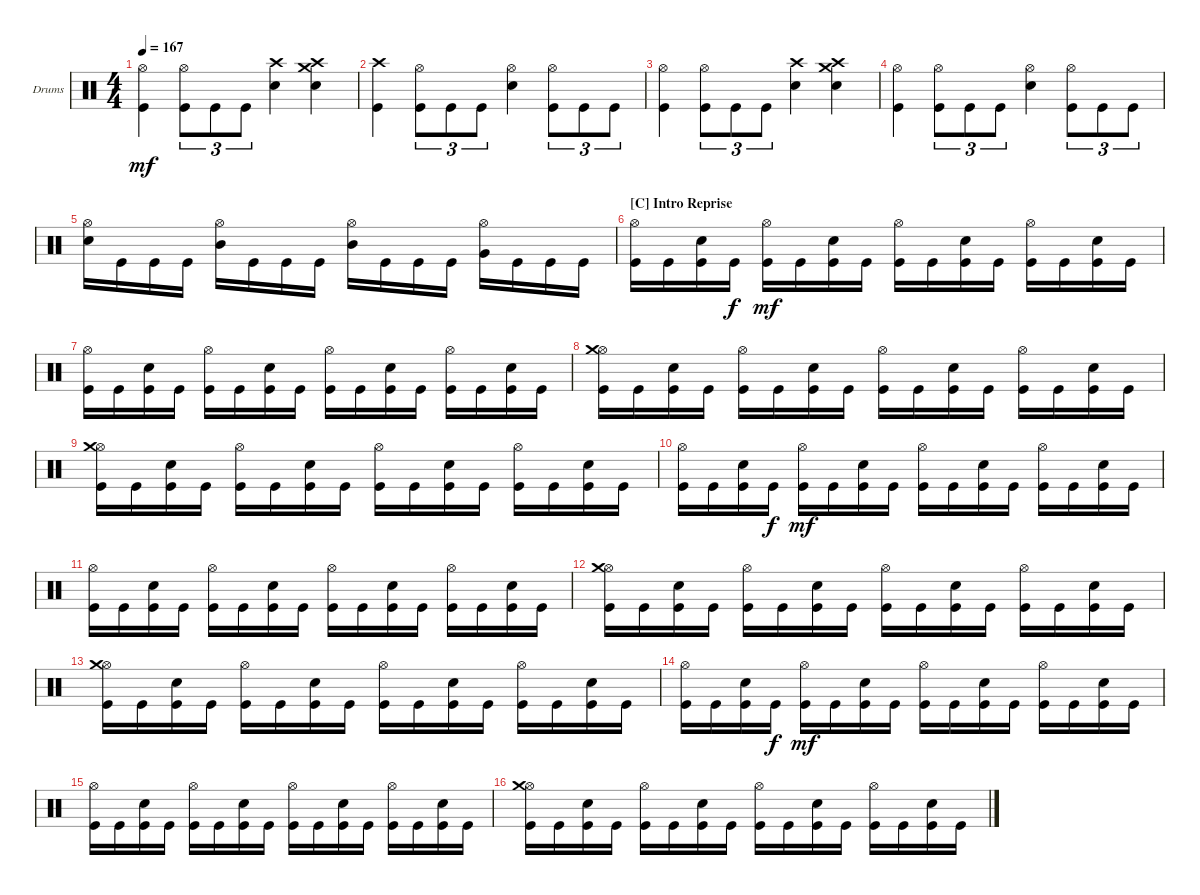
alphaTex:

\defaultSystemsLayout 4
\bracketExtendMode groupsimilarinstruments
\firstSystemTrackNameOrientation horizontal
\otherSystemsTrackNameOrientation horizontal
\track ("Drumkit" "Drums") {instrument percussion}
\staff {score}
\articulation defaults
\ts (4 4)
\tempo 167
\clef neutral
\ks c
("Kick (hit)" "Hi-Hat (open)").4{dy mf} ("Kick (hit)" "Hi-Hat (open)").8{tu (3 2)} "Kick (hit)".8{tu (3 2)} "Kick (hit)".8{tu (3 2)} ("Snare (hit) 2" "Crash high (hit)").4 ("Snare (hit) 2" "Crash medium (hit)" "Crash high (hit)").4 |
("Kick (hit)" "Crash high (hit)").4 ("Kick (hit)" "Hi-Hat (open)").8{tu (3 2)} "Kick (hit)".8{tu (3 2)} "Kick (hit)".8{tu (3 2)} ("Hi-Hat (open)" "Snare (hit) 2").4 ("Kick (hit)" "Hi-Hat (open)").8{tu (3 2)} "Kick (hit)".8{tu (3 2)} "Kick (hit)".8{tu (3 2)} |
("Kick (hit)" "Hi-Hat (open)").4 ("Kick (hit)" "Hi-Hat (open)").8{tu (3 2)} "Kick (hit)".8{tu (3 2)} "Kick (hit)".8{tu (3 2)} ("Snare (hit) 2" "Crash high (hit)").4 ("Snare (hit) 2" "Crash medium (hit)" "Crash high (hit)").4 |
("Kick (hit)" "Hi-Hat (open)").4 ("Kick (hit)" "Hi-Hat (open)").8{tu (3 2)} "Kick (hit)".8{tu (3 2)} "Kick (hit)".8{tu (3 2)} ("Hi-Hat (open)" "Snare (hit) 2").4 ("Kick (hit)" "Hi-Hat (open)").8{tu (3 2)} "Kick (hit)".8{tu (3 2)} "Kick (hit)".8{tu (3 2)} |
("Snare (hit) 2" "Hi-Hat (open)").16 "Kick (hit)".16 "Kick (hit)".16 "Kick (hit)".16 ("Mid Tom (hit)" "Hi-Hat (open)").16 "Kick (hit)".16 "Kick (hit)".16 "Kick (hit)".16 ("Mid Tom (hit)" "Hi-Hat (open)").16 "Kick (hit)".16 "Kick (hit)".16 "Kick (hit)".16 ("Very Low Tom (hit)" "Hi-Hat (open)").16 "Kick (hit)".16 "Kick (hit)".16 "Kick (hit)".16 |
\section ("C" "Intro Reprise")
("Kick (hit)" "Hi-Hat (open)").16 "Kick (hit)".16 ("Snare (hit) 2" "Kick (hit)").16 "Kick (hit)".16{dy f} ("Hi-Hat (open)" "Kick (hit)").16{dy mf} "Kick (hit)".16 ("Kick (hit)" "Snare (hit) 2").16 "Kick (hit)".16 ("Kick (hit)" "Hi-Hat (open)").16 "Kick (hit)".16 ("Kick (hit)" "Snare (hit) 2").16 "Kick (hit)".16 ("Kick (hit)" "Hi-Hat (open)").16 "Kick (hit)".16 ("Kick (hit)" "Snare (hit) 2").16 "Kick (hit)".16 |
("Kick (hit)" "Hi-Hat (open)").16 "Kick (hit)".16 ("Snare (hit) 2" "Kick (hit)").16 "Kick (hit)".16 ("Hi-Hat (open)" "Kick (hit)").16 "Kick (hit)".16 ("Snare (hit) 2" "Kick (hit)").16 "Kick (hit)".16 ("Kick (hit)" "Hi-Hat (open)").16 "Kick (hit)".16 ("Kick (hit)" "Snare (hit) 2").16 "Kick (hit)".16 ("Kick (hit)" "Hi-Hat (open)").16 "Kick (hit)".16 ("Kick (hit)" "Snare (hit) 2").16 "Kick (hit)".16 |
("Kick (hit)" "Hi-Hat (open)" "Crash medium (hit)").16 "Kick (hit)".16 ("Snare (hit) 2" "Kick (hit)").16 "Kick (hit)".16 ("Hi-Hat (open)" "Kick (hit)").16 "Kick (hit)".16 ("Kick (hit)" "Snare (hit) 2").16 "Kick (hit)".16 ("Kick (hit)" "Hi-Hat (open)").16 "Kick (hit)".16 ("Kick (hit)" "Snare (hit) 2").16 "Kick (hit)".16 ("Kick (hit)" "Hi-Hat (open)").16 "Kick (hit)".16 ("Kick (hit)" "Snare (hit) 2").16 "Kick (hit)".16 |
("Kick (hit)" "Hi-Hat (open)" "Crash medium (hit)").16 "Kick (hit)".16 ("Snare (hit) 2" "Kick (hit)").16 "Kick (hit)".16 ("Hi-Hat (open)" "Kick (hit)").16 "Kick (hit)".16 ("Kick (hit)" "Snare (hit) 2").16 "Kick (hit)".16 ("Kick (hit)" "Hi-Hat (open)").16 "Kick (hit)".16 ("Kick (hit)" "Snare (hit) 2").16 "Kick (hit)".16 ("Kick (hit)" "Hi-Hat (open)").16 "Kick (hit)".16 ("Kick (hit)" "Snare (hit) 2").16 "Kick (hit)".16 |
("Kick (hit)" "Hi-Hat (open)").16 "Kick (hit)".16 ("Snare (hit) 2" "Kick (hit)").16 "Kick (hit)".16{dy f} ("Hi-Hat (open)" "Kick (hit)").16{dy mf} "Kick (hit)".16 ("Kick (hit)" "Snare (hit) 2").16 "Kick (hit)".16 ("Kick (hit)" "Hi-Hat (open)").16 "Kick (hit)".16 ("Kick (hit)" "Snare (hit) 2").16 "Kick (hit)".16 ("Kick (hit)" "Hi-Hat (open)").16 "Kick (hit)".16 ("Kick (hit)" "Snare (hit) 2").16 "Kick (hit)".16 |
("Kick (hit)" "Hi-Hat (open)").16 "Kick (hit)".16 ("Snare (hit) 2" "Kick (hit)").16 "Kick (hit)".16 ("Hi-Hat (open)" "Kick (hit)").16 "Kick (hit)".16 ("Snare (hit) 2" "Kick (hit)").16 "Kick (hit)".16 ("Kick (hit)" "Hi-Hat (open)").16 "Kick (hit)".16 ("Kick (hit)" "Snare (hit) 2").16 "Kick (hit)".16 ("Kick (hit)" "Hi-Hat (open)").16 "Kick (hit)".16 ("Kick (hit)" "Snare (hit) 2").16 "Kick (hit)".16 |
("Kick (hit)" "Hi-Hat (open)" "Crash medium (hit)").16 "Kick (hit)".16 ("Snare (hit) 2" "Kick (hit)").16 "Kick (hit)".16 ("Hi-Hat (open)" "Kick (hit)").16 "Kick (hit)".16 ("Kick (hit)" "Snare (hit) 2").16 "Kick (hit)".16 ("Kick (hit)" "Hi-Hat (open)").16 "Kick (hit)".16 ("Kick (hit)" "Snare (hit) 2").16 "Kick (hit)".16 ("Kick (hit)" "Hi-Hat (open)").16 "Kick (hit)".16 ("Kick (hit)" "Snare (hit) 2").16 "Kick (hit)".16 |
("Kick (hit)" "Hi-Hat (open)" "Crash medium (hit)").16 "Kick (hit)".16 ("Snare (hit) 2" "Kick (hit)").16 "Kick (hit)".16 ("Hi-Hat (open)" "Kick (hit)").16 "Kick (hit)".16 ("Kick (hit)" "Snare (hit) 2").16 "Kick (hit)".16 ("Kick (hit)" "Hi-Hat (open)").16 "Kick (hit)".16 ("Kick (hit)" "Snare (hit) 2").16 "Kick (hit)".16 ("Kick (hit)" "Hi-Hat (open)").16 "Kick (hit)".16 ("Kick (hit)" "Snare (hit) 2").16 "Kick (hit)".16 |
("Kick (hit)" "Hi-Hat (open)").16 "Kick (hit)".16 ("Snare (hit) 2" "Kick (hit)").16 "Kick (hit)".16{dy f} ("Hi-Hat (open)" "Kick (hit)").16{dy mf} "Kick (hit)".16 ("Kick (hit)" "Snare (hit) 2").16 "Kick (hit)".16 ("Kick (hit)" "Hi-Hat (open)").16 "Kick (hit)".16 ("Kick (hit)" "Snare (hit) 2").16 "Kick (hit)".16 ("Kick (hit)" "Hi-Hat (open)").16 "Kick (hit)".16 ("Kick (hit)" "Snare (hit) 2").16 "Kick (hit)".16 |
("Kick (hit)" "Hi-Hat (open)").16 "Kick (hit)".16 ("Snare (hit) 2" "Kick (hit)").16 "Kick (hit)".16 ("Hi-Hat (open)" "Kick (hit)").16 "Kick (hit)".16 ("Snare (hit) 2" "Kick (hit)").16 "Kick (hit)".16 ("Kick (hit)" "Hi-Hat (open)").16 "Kick (hit)".16 ("Kick (hit)" "Snare (hit) 2").16 "Kick (hit)".16 ("Kick (hit)" "Hi-Hat (open)").16 "Kick (hit)".16 ("Kick (hit)" "Snare (hit) 2").16 "Kick (hit)".16 |
("Kick (hit)" "Hi-Hat (open)" "Crash medium (hit)").16 "Kick (hit)".16 ("Snare (hit) 2" "Kick (hit)").16 "Kick (hit)".16 ("Hi-Hat (open)" "Kick (hit)").16 "Kick (hit)".16 ("Kick (hit)" "Snare (hit) 2").16 "Kick (hit)".16 ("Kick (hit)" "Hi-Hat (open)").16 "Kick (hit)".16 ("Kick (hit)" "Snare (hit) 2").16 "Kick (hit)".16 ("Kick (hit)" "Hi-Hat (open)").16 "Kick (hit)".16 ("Kick (hit)" "Snare (hit) 2").16 "Kick (hit)".16
